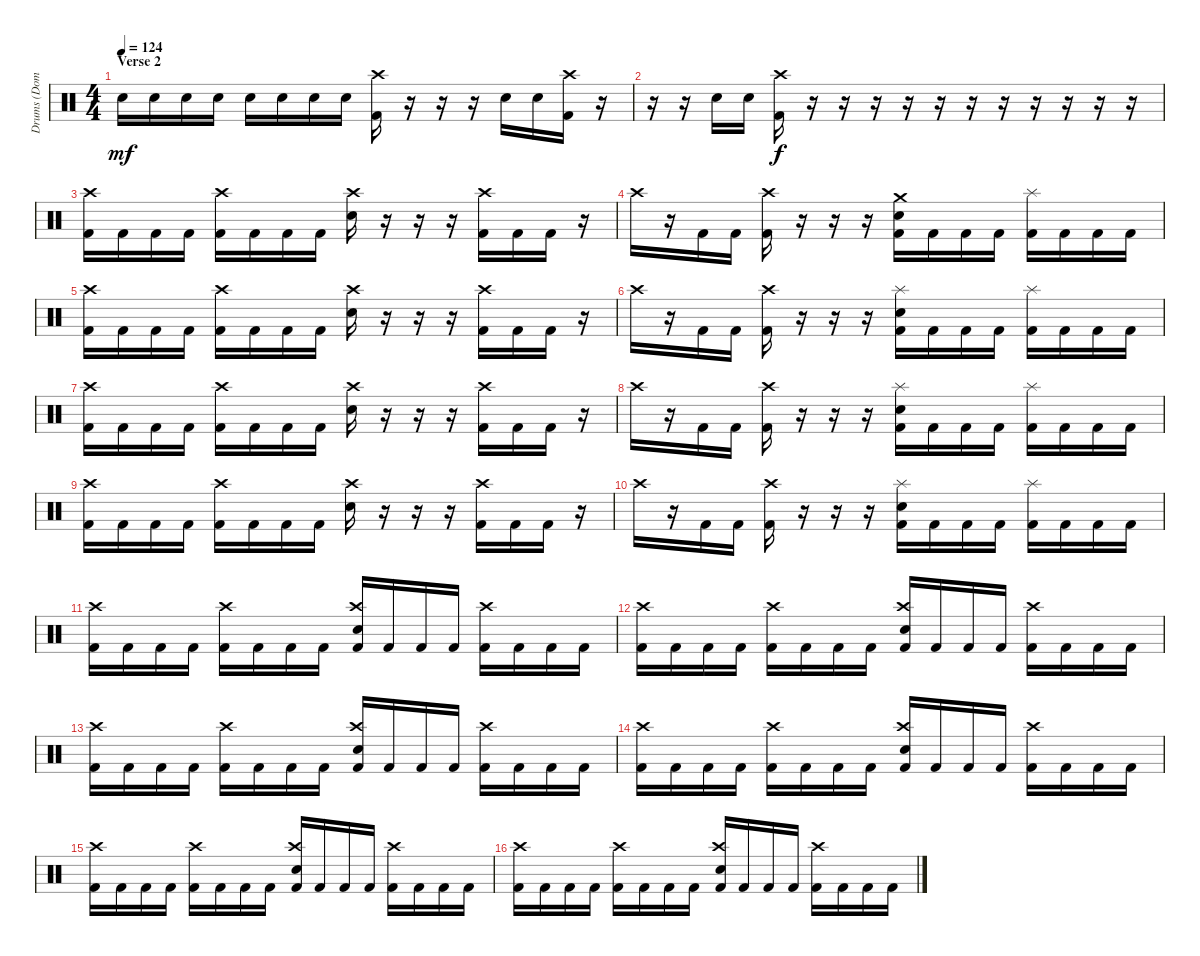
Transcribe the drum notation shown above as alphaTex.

\track ("Drums (Dominik)" "Drums (Dom") {instrument percussion}
\staff {score}
\articulation defaults
\ts (4 4)
\section ("" "Verse 2")
\tempo 124
\clef neutral
\ks c "Electric Snare (hit)".16{dy mf} "Electric Snare (hit)".16 "Electric Snare (hit)".16 "Electric Snare (hit)".16 "Electric Snare (hit)".16 "Electric Snare (hit)".16 "Electric Snare (hit)".16 "Electric Snare (hit)".16
("Crash high (hit)" "Kick (hit) 2").16 r.16 r.16 r.16 "Electric Snare (hit)".16 "Electric Snare (hit)".16 ("Crash high (hit)" "Kick (hit) 2").16 r.16 |
r.16 r.16 "Electric Snare (hit)".16 "Electric Snare (hit)".16 ("Crash high (hit)" "Kick (hit) 2").16{dy f} r.16 r.16 r.16 r.16 r.16 r.16 r.16 r.16 r.16 r.16 r.16 |
("Crash high (hit)" "Kick (hit) 2").16 "Kick (hit) 2".16 "Kick (hit) 2".16 "Kick (hit) 2".16 ("Crash high (hit)" "Kick (hit) 2").16 "Kick (hit) 2".16 "Kick (hit) 2".16 "Kick (hit) 2".16 ("Crash high (hit)" "Electric Snare (hit)").16 r.16 r.16 r.16 ("Crash high (hit)" "Kick (hit) 2").16 "Kick (hit) 2".16 "Kick (hit) 2".16 r.16 |
"Crash high (hit)".16 r.16 "Kick (hit) 2".16 "Kick (hit) 2".16 ("Crash high (hit)" "Kick (hit) 2").16 r.16 r.16 r.16 ("Crash medium (hit)" "Electric Snare (hit)" "Kick (hit) 2").16 "Kick (hit) 2".16 "Kick (hit) 2".16 "Kick (hit) 2".16 ("Splash (hit)" "Kick (hit) 2").16 "Kick (hit) 2".16 "Kick (hit) 2".16 "Kick (hit) 2".16 |
("Crash high (hit)" "Kick (hit) 2").16 "Kick (hit) 2".16 "Kick (hit) 2".16 "Kick (hit) 2".16 ("Crash high (hit)" "Kick (hit) 2").16 "Kick (hit) 2".16 "Kick (hit) 2".16 "Kick (hit) 2".16 ("Crash high (hit)" "Electric Snare (hit)").16 r.16 r.16 r.16 ("Crash high (hit)" "Kick (hit) 2").16 "Kick (hit) 2".16 "Kick (hit) 2".16 r.16 |
"Crash high (hit)".16 r.16 "Kick (hit) 2".16 "Kick (hit) 2".16 ("Crash high (hit)" "Kick (hit) 2").16 r.16 r.16 r.16 ("Splash (hit)" "Electric Snare (hit)" "Kick (hit) 2").16 "Kick (hit) 2".16 "Kick (hit) 2".16 "Kick (hit) 2".16 ("Splash (hit)" "Kick (hit) 2").16 "Kick (hit) 2".16 "Kick (hit) 2".16 "Kick (hit) 2".16 |
("Crash high (hit)" "Kick (hit) 2").16 "Kick (hit) 2".16 "Kick (hit) 2".16 "Kick (hit) 2".16 ("Crash high (hit)" "Kick (hit) 2").16 "Kick (hit) 2".16 "Kick (hit) 2".16 "Kick (hit) 2".16 ("Crash high (hit)" "Electric Snare (hit)").16 r.16 r.16 r.16 ("Crash high (hit)" "Kick (hit) 2").16 "Kick (hit) 2".16 "Kick (hit) 2".16 r.16 |
"Crash high (hit)".16 r.16 "Kick (hit) 2".16 "Kick (hit) 2".16 ("Crash high (hit)" "Kick (hit) 2").16 r.16 r.16 r.16 ("Splash (hit)" "Electric Snare (hit)" "Kick (hit) 2").16 "Kick (hit) 2".16 "Kick (hit) 2".16 "Kick (hit) 2".16 ("Splash (hit)" "Kick (hit) 2").16 "Kick (hit) 2".16 "Kick (hit) 2".16 "Kick (hit) 2".16 |
("Crash high (hit)" "Kick (hit) 2").16 "Kick (hit) 2".16 "Kick (hit) 2".16 "Kick (hit) 2".16 ("Crash high (hit)" "Kick (hit) 2").16 "Kick (hit) 2".16 "Kick (hit) 2".16 "Kick (hit) 2".16 ("Crash high (hit)" "Electric Snare (hit)").16 r.16 r.16 r.16 ("Crash high (hit)" "Kick (hit) 2").16 "Kick (hit) 2".16 "Kick (hit) 2".16 r.16 |
"Crash high (hit)".16 r.16 "Kick (hit) 2".16 "Kick (hit) 2".16 ("Crash high (hit)" "Kick (hit) 2").16 r.16 r.16 r.16 ("Splash (hit)" "Electric Snare (hit)" "Kick (hit) 2").16 "Kick (hit) 2".16 "Kick (hit) 2".16 "Kick (hit) 2".16 ("Splash (hit)" "Kick (hit) 2").16 "Kick (hit) 2".16 "Kick (hit) 2".16 "Kick (hit) 2".16 |
("Crash high (hit)" "Kick (hit) 2").16 "Kick (hit) 2".16 "Kick (hit) 2".16 "Kick (hit) 2".16 ("Crash high (hit)" "Kick (hit) 2").16 "Kick (hit) 2".16 "Kick (hit) 2".16 "Kick (hit) 2".16 ("Crash high (hit)" "Electric Snare (hit)" "Kick (hit) 2").16 "Kick (hit) 2".16 "Kick (hit) 2".16 "Kick (hit) 2".16 ("Crash high (hit)" "Kick (hit) 2").16 "Kick (hit) 2".16 "Kick (hit) 2".16 "Kick (hit) 2".16 |
("Crash high (hit)" "Kick (hit) 2").16 "Kick (hit) 2".16 "Kick (hit) 2".16 "Kick (hit) 2".16 ("Crash high (hit)" "Kick (hit) 2").16 "Kick (hit) 2".16 "Kick (hit) 2".16 "Kick (hit) 2".16 ("Crash high (hit)" "Electric Snare (hit)" "Kick (hit) 2").16 "Kick (hit) 2".16 "Kick (hit) 2".16 "Kick (hit) 2".16 ("Crash high (hit)" "Kick (hit) 2").16 "Kick (hit) 2".16 "Kick (hit) 2".16 "Kick (hit) 2".16 |
("Crash high (hit)" "Kick (hit) 2").16 "Kick (hit) 2".16 "Kick (hit) 2".16 "Kick (hit) 2".16 ("Crash high (hit)" "Kick (hit) 2").16 "Kick (hit) 2".16 "Kick (hit) 2".16 "Kick (hit) 2".16 ("Crash high (hit)" "Electric Snare (hit)" "Kick (hit) 2").16 "Kick (hit) 2".16 "Kick (hit) 2".16 "Kick (hit) 2".16 ("Crash high (hit)" "Kick (hit) 2").16 "Kick (hit) 2".16 "Kick (hit) 2".16 "Kick (hit) 2".16 |
("Crash high (hit)" "Kick (hit) 2").16 "Kick (hit) 2".16 "Kick (hit) 2".16 "Kick (hit) 2".16 ("Crash high (hit)" "Kick (hit) 2").16 "Kick (hit) 2".16 "Kick (hit) 2".16 "Kick (hit) 2".16 ("Crash high (hit)" "Electric Snare (hit)" "Kick (hit) 2").16 "Kick (hit) 2".16 "Kick (hit) 2".16 "Kick (hit) 2".16 ("Crash high (hit)" "Kick (hit) 2").16 "Kick (hit) 2".16 "Kick (hit) 2".16 "Kick (hit) 2".16 |
("Crash high (hit)" "Kick (hit) 2").16 "Kick (hit) 2".16 "Kick (hit) 2".16 "Kick (hit) 2".16 ("Crash high (hit)" "Kick (hit) 2").16 "Kick (hit) 2".16 "Kick (hit) 2".16 "Kick (hit) 2".16 ("Crash high (hit)" "Electric Snare (hit)" "Kick (hit) 2").16 "Kick (hit) 2".16 "Kick (hit) 2".16 "Kick (hit) 2".16 ("Crash high (hit)" "Kick (hit) 2").16 "Kick (hit) 2".16 "Kick (hit) 2".16 "Kick (hit) 2".16 |
("Crash high (hit)" "Kick (hit) 2").16 "Kick (hit) 2".16 "Kick (hit) 2".16 "Kick (hit) 2".16 ("Crash high (hit)" "Kick (hit) 2").16 "Kick (hit) 2".16 "Kick (hit) 2".16 "Kick (hit) 2".16 ("Crash high (hit)" "Electric Snare (hit)" "Kick (hit) 2").16 "Kick (hit) 2".16 "Kick (hit) 2".16 "Kick (hit) 2".16 ("Crash high (hit)" "Kick (hit) 2").16 "Kick (hit) 2".16 "Kick (hit) 2".16 "Kick (hit) 2".16
